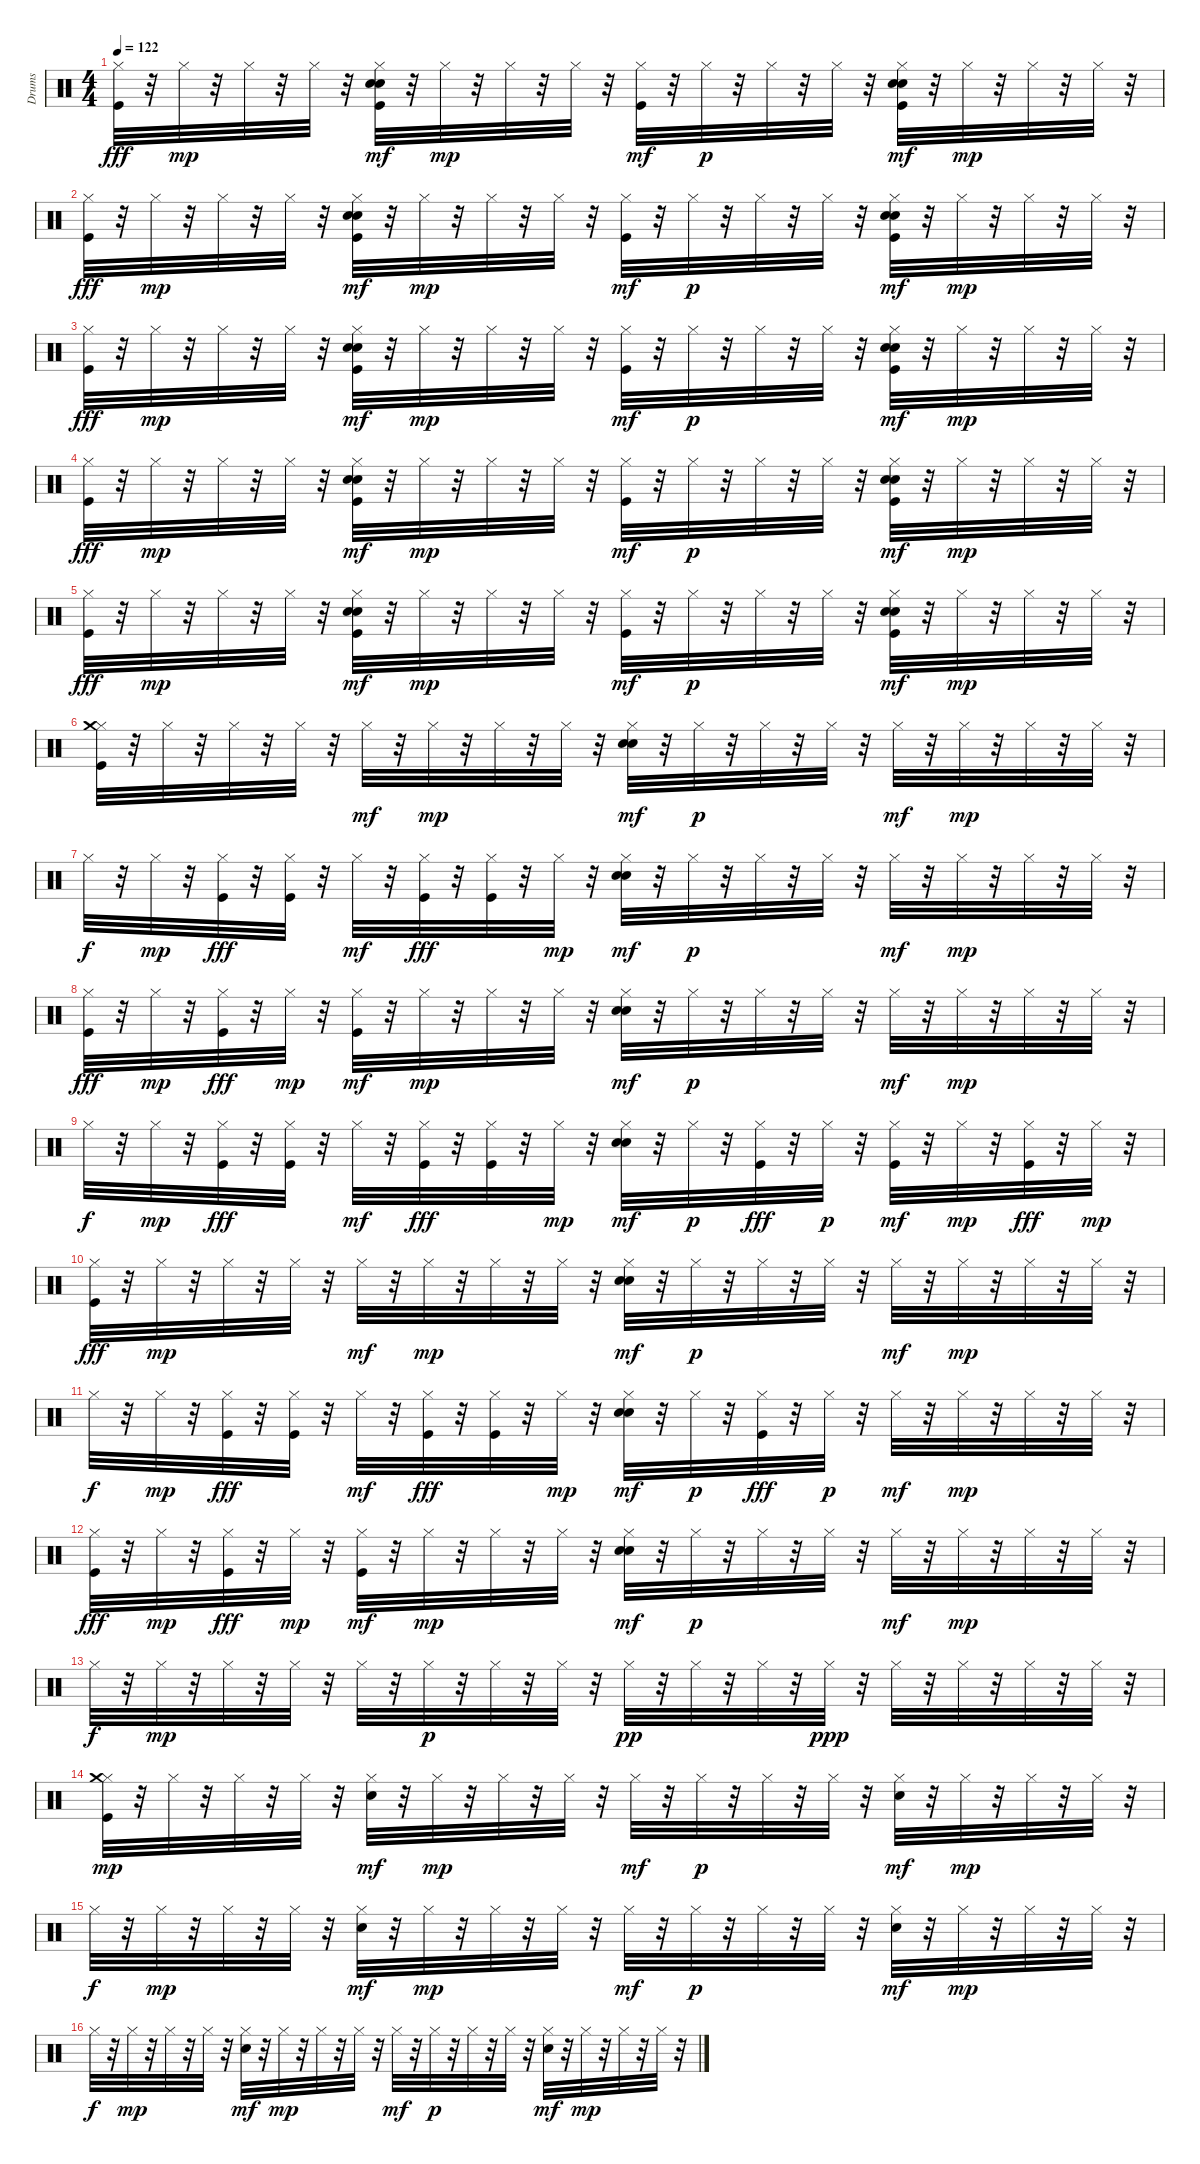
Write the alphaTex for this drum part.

\track ("Drums" "Drums") {instrument percussion}
\staff {score}
\articulation defaults
\ts (4 4)
\tempo 122
\clef neutral
\ks c
("Kick (hit)" "Hi-Hat (closed)").32{dy fff} r.32 "Hi-Hat (closed)".32{dy mp} r.32 "Hi-Hat (closed)".32 r.32 "Hi-Hat (closed)".32 r.32 ("Kick (hit)" "Hand Clap (hit)" "Electric Snare (hit)" "Hi-Hat (closed)").32{dy mf} r.32 "Hi-Hat (closed)".32{dy mp} r.32 "Hi-Hat (closed)".32 r.32 "Hi-Hat (closed)".32 r.32 ("Kick (hit)" "Hi-Hat (closed)").32{dy mf} r.32 "Hi-Hat (closed)".32{dy p} r.32 "Hi-Hat (closed)".32 r.32 "Hi-Hat (closed)".32 r.32 ("Kick (hit)" "Hand Clap (hit)" "Electric Snare (hit)" "Hi-Hat (closed)").32{dy mf} r.32 "Hi-Hat (closed)".32{dy mp} r.32 "Hi-Hat (closed)".32 r.32 "Hi-Hat (closed)".32 r.32 |
("Kick (hit)" "Hi-Hat (closed)").32{dy fff} r.32 "Hi-Hat (closed)".32{dy mp} r.32 "Hi-Hat (closed)".32 r.32 "Hi-Hat (closed)".32 r.32 ("Kick (hit)" "Hand Clap (hit)" "Electric Snare (hit)" "Hi-Hat (closed)").32{dy mf} r.32 "Hi-Hat (closed)".32{dy mp} r.32 "Hi-Hat (closed)".32 r.32 "Hi-Hat (closed)".32 r.32 ("Kick (hit)" "Hi-Hat (closed)").32{dy mf} r.32 "Hi-Hat (closed)".32{dy p} r.32 "Hi-Hat (closed)".32 r.32 "Hi-Hat (closed)".32 r.32 ("Kick (hit)" "Hand Clap (hit)" "Electric Snare (hit)" "Hi-Hat (closed)").32{dy mf} r.32 "Hi-Hat (closed)".32{dy mp} r.32 "Hi-Hat (closed)".32 r.32 "Hi-Hat (closed)".32 r.32 |
("Kick (hit)" "Hi-Hat (closed)").32{dy fff} r.32 "Hi-Hat (closed)".32{dy mp} r.32 "Hi-Hat (closed)".32 r.32 "Hi-Hat (closed)".32 r.32 ("Kick (hit)" "Hand Clap (hit)" "Electric Snare (hit)" "Hi-Hat (closed)").32{dy mf} r.32 "Hi-Hat (closed)".32{dy mp} r.32 "Hi-Hat (closed)".32 r.32 "Hi-Hat (closed)".32 r.32 ("Kick (hit)" "Hi-Hat (closed)").32{dy mf} r.32 "Hi-Hat (closed)".32{dy p} r.32 "Hi-Hat (closed)".32 r.32 "Hi-Hat (closed)".32 r.32 ("Kick (hit)" "Hand Clap (hit)" "Electric Snare (hit)" "Hi-Hat (closed)").32{dy mf} r.32 "Hi-Hat (closed)".32{dy mp} r.32 "Hi-Hat (closed)".32 r.32 "Hi-Hat (closed)".32 r.32 |
("Kick (hit)" "Hi-Hat (closed)").32{dy fff} r.32 "Hi-Hat (closed)".32{dy mp} r.32 "Hi-Hat (closed)".32 r.32 "Hi-Hat (closed)".32 r.32 ("Kick (hit)" "Hand Clap (hit)" "Electric Snare (hit)" "Hi-Hat (closed)").32{dy mf} r.32 "Hi-Hat (closed)".32{dy mp} r.32 "Hi-Hat (closed)".32 r.32 "Hi-Hat (closed)".32 r.32 ("Kick (hit)" "Hi-Hat (closed)").32{dy mf} r.32 "Hi-Hat (closed)".32{dy p} r.32 "Hi-Hat (closed)".32 r.32 "Hi-Hat (closed)".32 r.32 ("Kick (hit)" "Hand Clap (hit)" "Electric Snare (hit)" "Hi-Hat (closed)").32{dy mf} r.32 "Hi-Hat (closed)".32{dy mp} r.32 "Hi-Hat (closed)".32 r.32 "Hi-Hat (closed)".32 r.32 |
("Kick (hit)" "Hi-Hat (closed)").32{dy fff} r.32 "Hi-Hat (closed)".32{dy mp} r.32 "Hi-Hat (closed)".32 r.32 "Hi-Hat (closed)".32 r.32 ("Kick (hit)" "Hand Clap (hit)" "Electric Snare (hit)" "Hi-Hat (closed)").32{dy mf} r.32 "Hi-Hat (closed)".32{dy mp} r.32 "Hi-Hat (closed)".32 r.32 "Hi-Hat (closed)".32 r.32 ("Kick (hit)" "Hi-Hat (closed)").32{dy mf} r.32 "Hi-Hat (closed)".32{dy p} r.32 "Hi-Hat (closed)".32 r.32 "Hi-Hat (closed)".32 r.32 ("Kick (hit)" "Hand Clap (hit)" "Electric Snare (hit)" "Hi-Hat (closed)").32{dy mf} r.32 "Hi-Hat (closed)".32{dy mp} r.32 "Hi-Hat (closed)".32 r.32 "Hi-Hat (closed)".32 r.32 |
("Kick (hit)" "Hi-Hat (closed)" "Crash medium (hit)").32 r.32 "Hi-Hat (closed)".32 r.32 "Hi-Hat (closed)".32 r.32 "Hi-Hat (closed)".32 r.32 "Hi-Hat (closed)".32{dy mf} r.32 "Hi-Hat (closed)".32{dy mp} r.32 "Hi-Hat (closed)".32 r.32 "Hi-Hat (closed)".32 r.32 ("Hand Clap (hit)" "Electric Snare (hit)" "Hi-Hat (closed)").32{dy mf} r.32 "Hi-Hat (closed)".32{dy p} r.32 "Hi-Hat (closed)".32 r.32 "Hi-Hat (closed)".32 r.32 "Hi-Hat (closed)".32{dy mf} r.32 "Hi-Hat (closed)".32{dy mp} r.32 "Hi-Hat (closed)".32 r.32 "Hi-Hat (closed)".32 r.32 |
"Hi-Hat (closed)".32{dy f} r.32 "Hi-Hat (closed)".32{dy mp} r.32 ("Hi-Hat (closed)" "Kick (hit)").32{dy fff} r.32 ("Hi-Hat (closed)" "Kick (hit)").32 r.32 "Hi-Hat (closed)".32{dy mf} r.32 ("Hi-Hat (closed)" "Kick (hit)").32{dy fff} r.32 ("Hi-Hat (closed)" "Kick (hit)").32 r.32 "Hi-Hat (closed)".32{dy mp} r.32 ("Hand Clap (hit)" "Electric Snare (hit)" "Hi-Hat (closed)").32{dy mf} r.32 "Hi-Hat (closed)".32{dy p} r.32 "Hi-Hat (closed)".32 r.32 "Hi-Hat (closed)".32 r.32 "Hi-Hat (closed)".32{dy mf} r.32 "Hi-Hat (closed)".32{dy mp} r.32 "Hi-Hat (closed)".32 r.32 "Hi-Hat (closed)".32 r.32 |
("Kick (hit)" "Hi-Hat (closed)").32{dy fff} r.32 "Hi-Hat (closed)".32{dy mp} r.32 ("Hi-Hat (closed)" "Kick (hit)").32{dy fff} r.32 "Hi-Hat (closed)".32{dy mp} r.32 ("Kick (hit)" "Hi-Hat (closed)").32{dy mf} r.32 "Hi-Hat (closed)".32{dy mp} r.32 "Hi-Hat (closed)".32 r.32 "Hi-Hat (closed)".32 r.32 ("Hand Clap (hit)" "Electric Snare (hit)" "Hi-Hat (closed)").32{dy mf} r.32 "Hi-Hat (closed)".32{dy p} r.32 "Hi-Hat (closed)".32 r.32 "Hi-Hat (closed)".32 r.32 "Hi-Hat (closed)".32{dy mf} r.32 "Hi-Hat (closed)".32{dy mp} r.32 "Hi-Hat (closed)".32 r.32 "Hi-Hat (closed)".32 r.32 |
"Hi-Hat (closed)".32{dy f} r.32 "Hi-Hat (closed)".32{dy mp} r.32 ("Hi-Hat (closed)" "Kick (hit)").32{dy fff} r.32 ("Hi-Hat (closed)" "Kick (hit)").32 r.32 "Hi-Hat (closed)".32{dy mf} r.32 ("Hi-Hat (closed)" "Kick (hit)").32{dy fff} r.32 ("Hi-Hat (closed)" "Kick (hit)").32 r.32 "Hi-Hat (closed)".32{dy mp} r.32 ("Hand Clap (hit)" "Electric Snare (hit)" "Hi-Hat (closed)").32{dy mf} r.32 "Hi-Hat (closed)".32{dy p} r.32 ("Hi-Hat (closed)" "Kick (hit)").32{dy fff} r.32 "Hi-Hat (closed)".32{dy p} r.32 ("Kick (hit)" "Hi-Hat (closed)").32{dy mf} r.32 "Hi-Hat (closed)".32{dy mp} r.32 ("Hi-Hat (closed)" "Kick (hit)").32{dy fff} r.32 "Hi-Hat (closed)".32{dy mp} r.32 |
("Kick (hit)" "Hi-Hat (closed)").32{dy fff} r.32 "Hi-Hat (closed)".32{dy mp} r.32 "Hi-Hat (closed)".32 r.32 "Hi-Hat (closed)".32 r.32 "Hi-Hat (closed)".32{dy mf} r.32 "Hi-Hat (closed)".32{dy mp} r.32 "Hi-Hat (closed)".32 r.32 "Hi-Hat (closed)".32 r.32 ("Hand Clap (hit)" "Electric Snare (hit)" "Hi-Hat (closed)").32{dy mf} r.32 "Hi-Hat (closed)".32{dy p} r.32 "Hi-Hat (closed)".32 r.32 "Hi-Hat (closed)".32 r.32 "Hi-Hat (closed)".32{dy mf} r.32 "Hi-Hat (closed)".32{dy mp} r.32 "Hi-Hat (closed)".32 r.32 "Hi-Hat (closed)".32 r.32 |
"Hi-Hat (closed)".32{dy f} r.32 "Hi-Hat (closed)".32{dy mp} r.32 ("Hi-Hat (closed)" "Kick (hit)").32{dy fff} r.32 ("Hi-Hat (closed)" "Kick (hit)").32 r.32 "Hi-Hat (closed)".32{dy mf} r.32 ("Hi-Hat (closed)" "Kick (hit)").32{dy fff} r.32 ("Hi-Hat (closed)" "Kick (hit)").32 r.32 "Hi-Hat (closed)".32{dy mp} r.32 ("Hand Clap (hit)" "Electric Snare (hit)" "Hi-Hat (closed)").32{dy mf} r.32 "Hi-Hat (closed)".32{dy p} r.32 ("Hi-Hat (closed)" "Kick (hit)").32{dy fff} r.32 "Hi-Hat (closed)".32{dy p} r.32 "Hi-Hat (closed)".32{dy mf} r.32 "Hi-Hat (closed)".32{dy mp} r.32 "Hi-Hat (closed)".32 r.32 "Hi-Hat (closed)".32 r.32 |
("Kick (hit)" "Hi-Hat (closed)").32{dy fff} r.32 "Hi-Hat (closed)".32{dy mp} r.32 ("Hi-Hat (closed)" "Kick (hit)").32{dy fff} r.32 "Hi-Hat (closed)".32{dy mp} r.32 ("Kick (hit)" "Hi-Hat (closed)").32{dy mf} r.32 "Hi-Hat (closed)".32{dy mp} r.32 "Hi-Hat (closed)".32 r.32 "Hi-Hat (closed)".32 r.32 ("Hand Clap (hit)" "Electric Snare (hit)" "Hi-Hat (closed)").32{dy mf} r.32 "Hi-Hat (closed)".32{dy p} r.32 "Hi-Hat (closed)".32 r.32 "Hi-Hat (closed)".32 r.32 "Hi-Hat (closed)".32{dy mf} r.32 "Hi-Hat (closed)".32{dy mp} r.32 "Hi-Hat (closed)".32 r.32 "Hi-Hat (closed)".32 r.32 |
"Hi-Hat (closed)".32{dy f} r.32 "Hi-Hat (closed)".32{dy mp} r.32 "Hi-Hat (closed)".32 r.32 "Hi-Hat (closed)".32 r.32 "Hi-Hat (closed)".32 r.32 "Hi-Hat (closed)".32{dy p} r.32 "Hi-Hat (closed)".32 r.32 "Hi-Hat (closed)".32 r.32 "Hi-Hat (closed)".32{dy pp} r.32 "Hi-Hat (closed)".32 r.32 "Hi-Hat (closed)".32 r.32 "Hi-Hat (closed)".32{dy ppp} r.32 "Hi-Hat (closed)".32 r.32 "Hi-Hat (closed)".32 r.32 "Hi-Hat (closed)".32 r.32 "Hi-Hat (closed)".32 r.32 |
("Kick (hit)" "Hi-Hat (closed)" "Crash medium (hit)").32{dy mp} r.32 "Hi-Hat (closed)".32 r.32 "Hi-Hat (closed)".32 r.32 "Hi-Hat (closed)".32 r.32 ("Hand Clap (hit)" "Hi-Hat (closed)").32{dy mf} r.32 "Hi-Hat (closed)".32{dy mp} r.32 "Hi-Hat (closed)".32 r.32 "Hi-Hat (closed)".32 r.32 "Hi-Hat (closed)".32{dy mf} r.32 "Hi-Hat (closed)".32{dy p} r.32 "Hi-Hat (closed)".32 r.32 "Hi-Hat (closed)".32 r.32 ("Hand Clap (hit)" "Hi-Hat (closed)").32{dy mf} r.32 "Hi-Hat (closed)".32{dy mp} r.32 "Hi-Hat (closed)".32 r.32 "Hi-Hat (closed)".32 r.32 |
"Hi-Hat (closed)".32{dy f} r.32 "Hi-Hat (closed)".32{dy mp} r.32 "Hi-Hat (closed)".32 r.32 "Hi-Hat (closed)".32 r.32 ("Hand Clap (hit)" "Hi-Hat (closed)").32{dy mf} r.32 "Hi-Hat (closed)".32{dy mp} r.32 "Hi-Hat (closed)".32 r.32 "Hi-Hat (closed)".32 r.32 "Hi-Hat (closed)".32{dy mf} r.32 "Hi-Hat (closed)".32{dy p} r.32 "Hi-Hat (closed)".32 r.32 "Hi-Hat (closed)".32 r.32 ("Hand Clap (hit)" "Hi-Hat (closed)").32{dy mf} r.32 "Hi-Hat (closed)".32{dy mp} r.32 "Hi-Hat (closed)".32 r.32 "Hi-Hat (closed)".32 r.32 |
"Hi-Hat (closed)".32{dy f} r.32 "Hi-Hat (closed)".32{dy mp} r.32 "Hi-Hat (closed)".32 r.32 "Hi-Hat (closed)".32 r.32 ("Hand Clap (hit)" "Hi-Hat (closed)").32{dy mf} r.32 "Hi-Hat (closed)".32{dy mp} r.32 "Hi-Hat (closed)".32 r.32 "Hi-Hat (closed)".32 r.32 "Hi-Hat (closed)".32{dy mf} r.32 "Hi-Hat (closed)".32{dy p} r.32 "Hi-Hat (closed)".32 r.32 "Hi-Hat (closed)".32 r.32 ("Hand Clap (hit)" "Hi-Hat (closed)").32{dy mf} r.32 "Hi-Hat (closed)".32{dy mp} r.32 "Hi-Hat (closed)".32 r.32 "Hi-Hat (closed)".32 r.32
